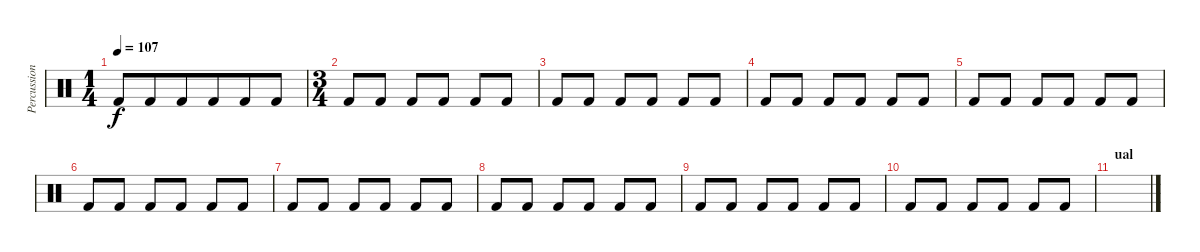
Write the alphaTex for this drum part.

\track ("Percussion" "Percussion") {instrument percussion}
\staff {score}
\articulation defaults
\ts (1 4)
\tempo 107
\clef neutral
\ks c "Kick (hit) 2".8{dy f} "Kick (hit) 2".8 "Kick (hit) 2".8 "Kick (hit) 2".8 "Kick (hit) 2".8 "Kick (hit) 2".8
|
\ts (3 4)
"Kick (hit) 2".8 "Kick (hit) 2".8 "Kick (hit) 2".8 "Kick (hit) 2".8 "Kick (hit) 2".8 "Kick (hit) 2".8 |
"Kick (hit) 2".8 "Kick (hit) 2".8 "Kick (hit) 2".8 "Kick (hit) 2".8 "Kick (hit) 2".8 "Kick (hit) 2".8 |
"Kick (hit) 2".8 "Kick (hit) 2".8 "Kick (hit) 2".8 "Kick (hit) 2".8 "Kick (hit) 2".8 "Kick (hit) 2".8 |
"Kick (hit) 2".8 "Kick (hit) 2".8 "Kick (hit) 2".8 "Kick (hit) 2".8 "Kick (hit) 2".8 "Kick (hit) 2".8 |
"Kick (hit) 2".8 "Kick (hit) 2".8 "Kick (hit) 2".8 "Kick (hit) 2".8 "Kick (hit) 2".8 "Kick (hit) 2".8 |
"Kick (hit) 2".8 "Kick (hit) 2".8 "Kick (hit) 2".8 "Kick (hit) 2".8 "Kick (hit) 2".8 "Kick (hit) 2".8 |
"Kick (hit) 2".8 "Kick (hit) 2".8 "Kick (hit) 2".8 "Kick (hit) 2".8 "Kick (hit) 2".8 "Kick (hit) 2".8 |
"Kick (hit) 2".8 "Kick (hit) 2".8 "Kick (hit) 2".8 "Kick (hit) 2".8 "Kick (hit) 2".8 "Kick (hit) 2".8 |
"Kick (hit) 2".8 "Kick (hit) 2".8 "Kick (hit) 2".8 "Kick (hit) 2".8 "Kick (hit) 2".8 "Kick (hit) 2".8 |
\section ("" "ual")
